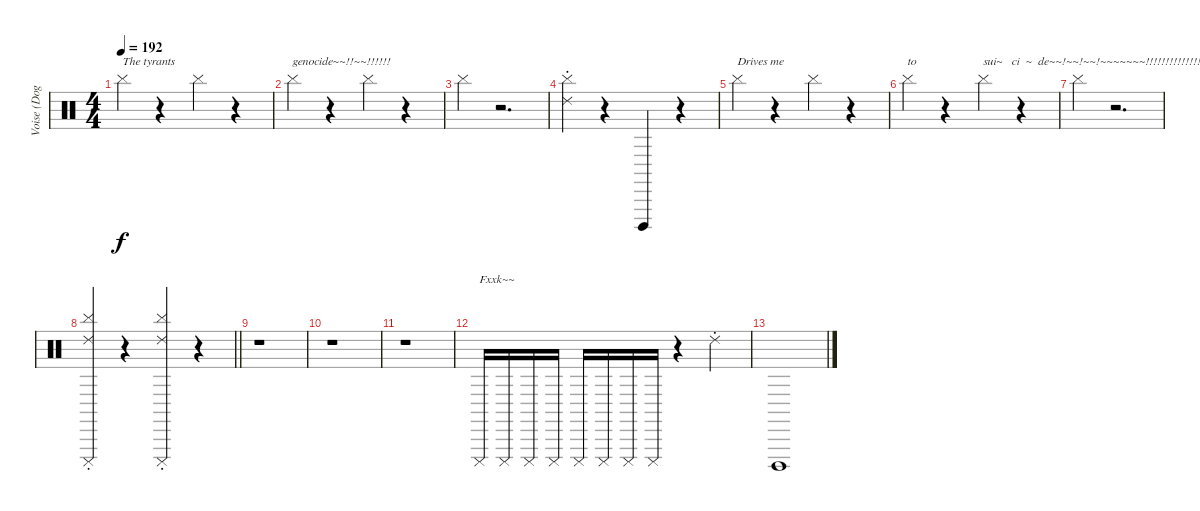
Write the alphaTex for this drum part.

\track ("Voise (Dog)" "Voise (Dog") {instrument percussion}
\staff {score}
\articulation defaults
\ts (4 4)
\tempo 192
\clef neutral
\ks c "Cymbal (hit)".4{txt "The tyrants" dy f}
r.4 "Cymbal (hit)".4 r.4 |
"Cymbal (hit)".4{txt "genocide~~!!~~!!!!!!"} r.4 "Cymbal (hit)".4 r.4 |
"Cymbal (hit)".4 r.2{d} |
("Ride (choke) 2" "Cymbal (hit)").4 r.4 "Cuica (open)".4 r.4 |
"Cymbal (hit)".4{txt "Drives me "} r.4 "Cymbal (hit)".4 r.4 |
"Cymbal (hit)".4{txt "to"} r.4 "Cymbal (hit)".4{txt "sui~   ci  ~  de~~!~~!~~!~~~~~~~!!!!!!!!!!!!!!!!!"} r.4 |
"Cymbal (hit)".4 r.2{d} |
\barLineRight lightlight
("Cuica (mute)" "Ride (choke) 2" "Cymbal (hit)").4 r.4 ("Cuica (mute)" "Ride (choke) 2" "Cymbal (hit)").4 r.4 |
r.1 |
r.1 |
r.1 |
"Cuica (mute)".16{txt "Fxxk~~"} "Cuica (mute)".16 "Cuica (mute)".16 "Cuica (mute)".16 "Cuica (mute)".16 "Cuica (mute)".16 "Cuica (mute)".16 "Cuica (mute)".16 r.4 "Ride (choke) 2".4 |
"Cuica (open)".1
